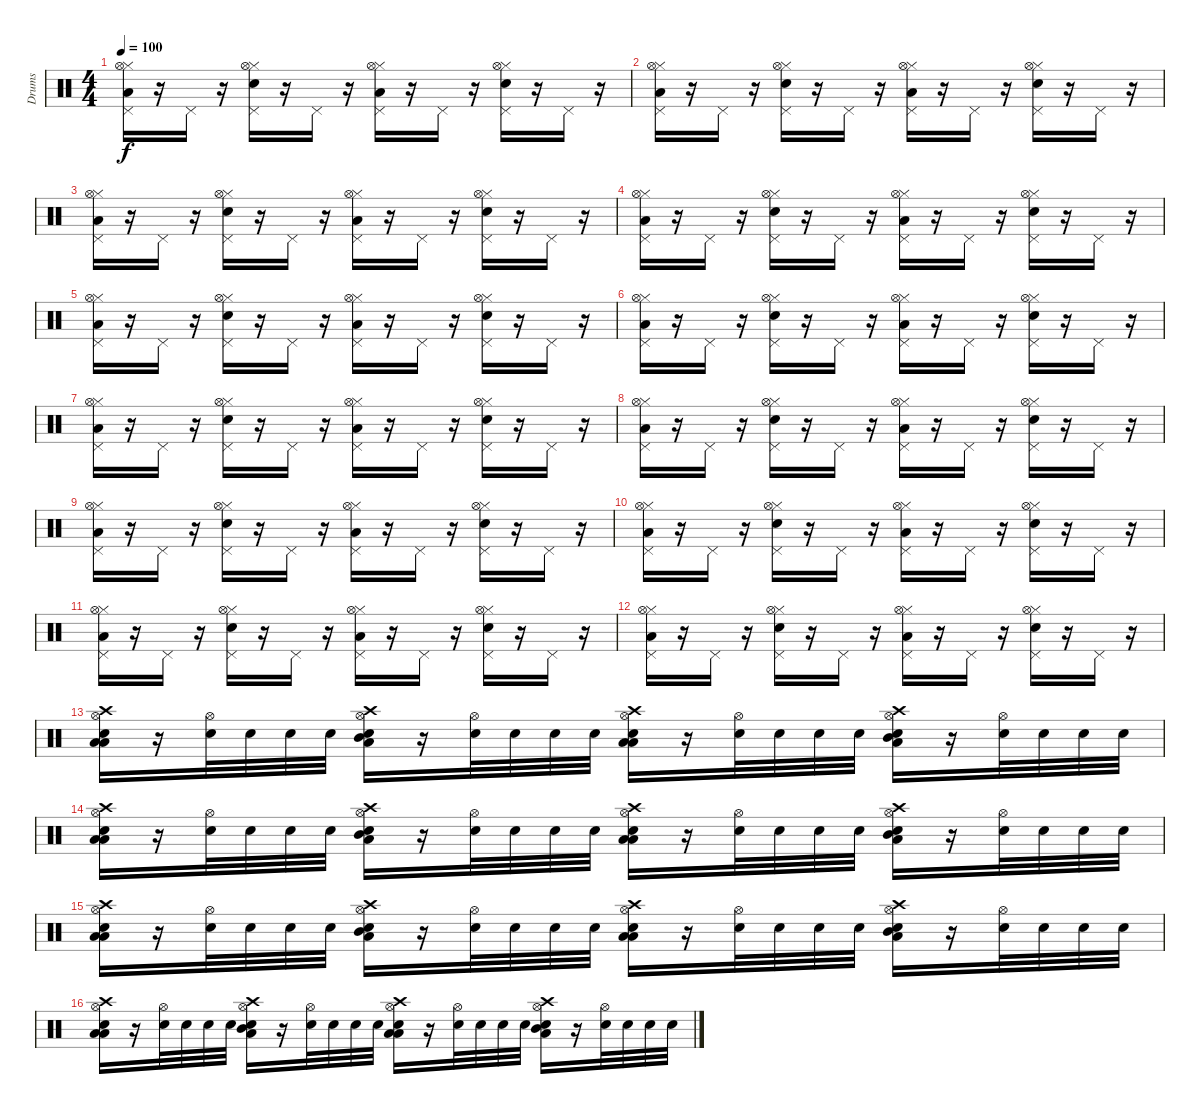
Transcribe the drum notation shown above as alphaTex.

\track ("Drums" "Drums") {instrument percussion}
\staff {score}
\articulation defaults
\ts (4 4)
\tempo 100
\clef neutral
\ks c
("Hi-Hat (closed)" "Pedal Hi-Hat (hit)" "Hi-Hat (open)" "Low Floor Tom (hit)").16{dy f} r.16 "Pedal Hi-Hat (hit)".16 r.16 ("Hi-Hat (closed)" "Pedal Hi-Hat (hit)" "Hi-Hat (open)" "Electric Snare (hit)").16 r.16 "Pedal Hi-Hat (hit)".16 r.16 ("Hi-Hat (closed)" "Pedal Hi-Hat (hit)" "Hi-Hat (open)" "Low Floor Tom (hit)").16 r.16 "Pedal Hi-Hat (hit)".16 r.16 ("Hi-Hat (closed)" "Pedal Hi-Hat (hit)" "Hi-Hat (open)" "Electric Snare (hit)").16 r.16 "Pedal Hi-Hat (hit)".16 r.16 |
("Hi-Hat (closed)" "Pedal Hi-Hat (hit)" "Hi-Hat (open)" "Low Floor Tom (hit)").16 r.16 "Pedal Hi-Hat (hit)".16 r.16 ("Hi-Hat (closed)" "Pedal Hi-Hat (hit)" "Hi-Hat (open)" "Electric Snare (hit)").16 r.16 "Pedal Hi-Hat (hit)".16 r.16 ("Hi-Hat (closed)" "Pedal Hi-Hat (hit)" "Hi-Hat (open)" "Low Floor Tom (hit)").16 r.16 "Pedal Hi-Hat (hit)".16 r.16 ("Hi-Hat (closed)" "Pedal Hi-Hat (hit)" "Hi-Hat (open)" "Electric Snare (hit)").16 r.16 "Pedal Hi-Hat (hit)".16 r.16 |
("Hi-Hat (closed)" "Pedal Hi-Hat (hit)" "Hi-Hat (open)" "Low Floor Tom (hit)").16 r.16 "Pedal Hi-Hat (hit)".16 r.16 ("Hi-Hat (closed)" "Pedal Hi-Hat (hit)" "Hi-Hat (open)" "Electric Snare (hit)").16 r.16 "Pedal Hi-Hat (hit)".16 r.16 ("Hi-Hat (closed)" "Pedal Hi-Hat (hit)" "Hi-Hat (open)" "Low Floor Tom (hit)").16 r.16 "Pedal Hi-Hat (hit)".16 r.16 ("Hi-Hat (closed)" "Pedal Hi-Hat (hit)" "Hi-Hat (open)" "Electric Snare (hit)").16 r.16 "Pedal Hi-Hat (hit)".16 r.16 |
("Hi-Hat (closed)" "Pedal Hi-Hat (hit)" "Hi-Hat (open)" "Low Floor Tom (hit)").16 r.16 "Pedal Hi-Hat (hit)".16 r.16 ("Hi-Hat (closed)" "Pedal Hi-Hat (hit)" "Hi-Hat (open)" "Electric Snare (hit)").16 r.16 "Pedal Hi-Hat (hit)".16 r.16 ("Hi-Hat (closed)" "Pedal Hi-Hat (hit)" "Hi-Hat (open)" "Low Floor Tom (hit)").16 r.16 "Pedal Hi-Hat (hit)".16 r.16 ("Hi-Hat (closed)" "Pedal Hi-Hat (hit)" "Hi-Hat (open)" "Electric Snare (hit)").16 r.16 "Pedal Hi-Hat (hit)".16 r.16 |
("Hi-Hat (closed)" "Pedal Hi-Hat (hit)" "Hi-Hat (open)" "Low Floor Tom (hit)").16 r.16 "Pedal Hi-Hat (hit)".16 r.16 ("Hi-Hat (closed)" "Pedal Hi-Hat (hit)" "Hi-Hat (open)" "Electric Snare (hit)").16 r.16 "Pedal Hi-Hat (hit)".16 r.16 ("Hi-Hat (closed)" "Pedal Hi-Hat (hit)" "Hi-Hat (open)" "Low Floor Tom (hit)").16 r.16 "Pedal Hi-Hat (hit)".16 r.16 ("Hi-Hat (closed)" "Pedal Hi-Hat (hit)" "Hi-Hat (open)" "Electric Snare (hit)").16 r.16 "Pedal Hi-Hat (hit)".16 r.16 |
("Hi-Hat (closed)" "Pedal Hi-Hat (hit)" "Hi-Hat (open)" "Low Floor Tom (hit)").16 r.16 "Pedal Hi-Hat (hit)".16 r.16 ("Hi-Hat (closed)" "Pedal Hi-Hat (hit)" "Hi-Hat (open)" "Electric Snare (hit)").16 r.16 "Pedal Hi-Hat (hit)".16 r.16 ("Hi-Hat (closed)" "Pedal Hi-Hat (hit)" "Hi-Hat (open)" "Low Floor Tom (hit)").16 r.16 "Pedal Hi-Hat (hit)".16 r.16 ("Hi-Hat (closed)" "Pedal Hi-Hat (hit)" "Hi-Hat (open)" "Electric Snare (hit)").16 r.16 "Pedal Hi-Hat (hit)".16 r.16 |
("Hi-Hat (closed)" "Pedal Hi-Hat (hit)" "Hi-Hat (open)" "Low Floor Tom (hit)").16 r.16 "Pedal Hi-Hat (hit)".16 r.16 ("Hi-Hat (closed)" "Pedal Hi-Hat (hit)" "Hi-Hat (open)" "Electric Snare (hit)").16 r.16 "Pedal Hi-Hat (hit)".16 r.16 ("Hi-Hat (closed)" "Pedal Hi-Hat (hit)" "Hi-Hat (open)" "Low Floor Tom (hit)").16 r.16 "Pedal Hi-Hat (hit)".16 r.16 ("Hi-Hat (closed)" "Pedal Hi-Hat (hit)" "Hi-Hat (open)" "Electric Snare (hit)").16 r.16 "Pedal Hi-Hat (hit)".16 r.16 |
("Hi-Hat (closed)" "Pedal Hi-Hat (hit)" "Hi-Hat (open)" "Low Floor Tom (hit)").16 r.16 "Pedal Hi-Hat (hit)".16 r.16 ("Hi-Hat (closed)" "Pedal Hi-Hat (hit)" "Hi-Hat (open)" "Electric Snare (hit)").16 r.16 "Pedal Hi-Hat (hit)".16 r.16 ("Hi-Hat (closed)" "Pedal Hi-Hat (hit)" "Hi-Hat (open)" "Low Floor Tom (hit)").16 r.16 "Pedal Hi-Hat (hit)".16 r.16 ("Hi-Hat (closed)" "Pedal Hi-Hat (hit)" "Hi-Hat (open)" "Electric Snare (hit)").16 r.16 "Pedal Hi-Hat (hit)".16 r.16 |
("Hi-Hat (closed)" "Pedal Hi-Hat (hit)" "Hi-Hat (open)" "Low Floor Tom (hit)").16 r.16 "Pedal Hi-Hat (hit)".16 r.16 ("Hi-Hat (closed)" "Pedal Hi-Hat (hit)" "Hi-Hat (open)" "Electric Snare (hit)").16 r.16 "Pedal Hi-Hat (hit)".16 r.16 ("Hi-Hat (closed)" "Pedal Hi-Hat (hit)" "Hi-Hat (open)" "Low Floor Tom (hit)").16 r.16 "Pedal Hi-Hat (hit)".16 r.16 ("Hi-Hat (closed)" "Pedal Hi-Hat (hit)" "Hi-Hat (open)" "Electric Snare (hit)").16 r.16 "Pedal Hi-Hat (hit)".16 r.16 |
("Hi-Hat (closed)" "Pedal Hi-Hat (hit)" "Hi-Hat (open)" "Low Floor Tom (hit)").16 r.16 "Pedal Hi-Hat (hit)".16 r.16 ("Hi-Hat (closed)" "Pedal Hi-Hat (hit)" "Hi-Hat (open)" "Electric Snare (hit)").16 r.16 "Pedal Hi-Hat (hit)".16 r.16 ("Hi-Hat (closed)" "Pedal Hi-Hat (hit)" "Hi-Hat (open)" "Low Floor Tom (hit)").16 r.16 "Pedal Hi-Hat (hit)".16 r.16 ("Hi-Hat (closed)" "Pedal Hi-Hat (hit)" "Hi-Hat (open)" "Electric Snare (hit)").16 r.16 "Pedal Hi-Hat (hit)".16 r.16 |
("Hi-Hat (closed)" "Pedal Hi-Hat (hit)" "Hi-Hat (open)" "Low Floor Tom (hit)").16 r.16 "Pedal Hi-Hat (hit)".16 r.16 ("Hi-Hat (closed)" "Pedal Hi-Hat (hit)" "Hi-Hat (open)" "Electric Snare (hit)").16 r.16 "Pedal Hi-Hat (hit)".16 r.16 ("Hi-Hat (closed)" "Pedal Hi-Hat (hit)" "Hi-Hat (open)" "Low Floor Tom (hit)").16 r.16 "Pedal Hi-Hat (hit)".16 r.16 ("Hi-Hat (closed)" "Pedal Hi-Hat (hit)" "Hi-Hat (open)" "Electric Snare (hit)").16 r.16 "Pedal Hi-Hat (hit)".16 r.16 |
("Hi-Hat (closed)" "Pedal Hi-Hat (hit)" "Hi-Hat (open)" "Low Floor Tom (hit)").16 r.16 "Pedal Hi-Hat (hit)".16 r.16 ("Hi-Hat (closed)" "Pedal Hi-Hat (hit)" "Hi-Hat (open)" "Electric Snare (hit)").16 r.16 "Pedal Hi-Hat (hit)".16 r.16 ("Hi-Hat (closed)" "Pedal Hi-Hat (hit)" "Hi-Hat (open)" "Low Floor Tom (hit)").16 r.16 "Pedal Hi-Hat (hit)".16 r.16 ("Hi-Hat (closed)" "Pedal Hi-Hat (hit)" "Hi-Hat (open)" "Electric Snare (hit)").16 r.16 "Pedal Hi-Hat (hit)".16 r.16 |
("Hi-Hat (open)" "Crash high (hit)" "Low Tom (hit)" "Low Floor Tom (hit)" "Electric Snare (hit)").16 r.16 ("Hi-Hat (open)" "Electric Snare (hit)").32 "Electric Snare (hit)".32 "Electric Snare (hit)".32 "Electric Snare (hit)".32 ("Hi-Hat (open)" "Crash high (hit)" "Mid Tom (hit)" "Low Floor Tom (hit)" "Electric Snare (hit)").16 r.16 ("Hi-Hat (open)" "Electric Snare (hit)").32 "Electric Snare (hit)".32 "Electric Snare (hit)".32 "Electric Snare (hit)".32 ("Hi-Hat (open)" "Crash high (hit)" "Low Tom (hit)" "Low Floor Tom (hit)" "Electric Snare (hit)").16 r.16 ("Hi-Hat (open)" "Electric Snare (hit)").32 "Electric Snare (hit)".32 "Electric Snare (hit)".32 "Electric Snare (hit)".32 ("Hi-Hat (open)" "Crash high (hit)" "Mid Tom (hit)" "Electric Snare (hit)" "Low Floor Tom (hit)").16 r.16 ("Hi-Hat (open)" "Electric Snare (hit)").32 "Electric Snare (hit)".32 "Electric Snare (hit)".32 "Electric Snare (hit)".32 |
("Hi-Hat (open)" "Crash high (hit)" "Low Tom (hit)" "Low Floor Tom (hit)" "Electric Snare (hit)").16 r.16 ("Hi-Hat (open)" "Electric Snare (hit)").32 "Electric Snare (hit)".32 "Electric Snare (hit)".32 "Electric Snare (hit)".32 ("Hi-Hat (open)" "Crash high (hit)" "Mid Tom (hit)" "Low Floor Tom (hit)" "Electric Snare (hit)").16 r.16 ("Hi-Hat (open)" "Electric Snare (hit)").32 "Electric Snare (hit)".32 "Electric Snare (hit)".32 "Electric Snare (hit)".32 ("Hi-Hat (open)" "Crash high (hit)" "Low Tom (hit)" "Low Floor Tom (hit)" "Electric Snare (hit)").16 r.16 ("Hi-Hat (open)" "Electric Snare (hit)").32 "Electric Snare (hit)".32 "Electric Snare (hit)".32 "Electric Snare (hit)".32 ("Hi-Hat (open)" "Crash high (hit)" "Mid Tom (hit)" "Electric Snare (hit)" "Low Floor Tom (hit)").16 r.16 ("Hi-Hat (open)" "Electric Snare (hit)").32 "Electric Snare (hit)".32 "Electric Snare (hit)".32 "Electric Snare (hit)".32 |
("Hi-Hat (open)" "Crash high (hit)" "Low Tom (hit)" "Low Floor Tom (hit)" "Electric Snare (hit)").16 r.16 ("Hi-Hat (open)" "Electric Snare (hit)").32 "Electric Snare (hit)".32 "Electric Snare (hit)".32 "Electric Snare (hit)".32 ("Hi-Hat (open)" "Crash high (hit)" "Mid Tom (hit)" "Low Floor Tom (hit)" "Electric Snare (hit)").16 r.16 ("Hi-Hat (open)" "Electric Snare (hit)").32 "Electric Snare (hit)".32 "Electric Snare (hit)".32 "Electric Snare (hit)".32 ("Hi-Hat (open)" "Crash high (hit)" "Low Tom (hit)" "Low Floor Tom (hit)" "Electric Snare (hit)").16 r.16 ("Hi-Hat (open)" "Electric Snare (hit)").32 "Electric Snare (hit)".32 "Electric Snare (hit)".32 "Electric Snare (hit)".32 ("Hi-Hat (open)" "Crash high (hit)" "Mid Tom (hit)" "Electric Snare (hit)" "Low Floor Tom (hit)").16 r.16 ("Hi-Hat (open)" "Electric Snare (hit)").32 "Electric Snare (hit)".32 "Electric Snare (hit)".32 "Electric Snare (hit)".32 |
("Hi-Hat (open)" "Crash high (hit)" "Low Tom (hit)" "Low Floor Tom (hit)" "Electric Snare (hit)").16 r.16 ("Hi-Hat (open)" "Electric Snare (hit)").32 "Electric Snare (hit)".32 "Electric Snare (hit)".32 "Electric Snare (hit)".32 ("Hi-Hat (open)" "Crash high (hit)" "Mid Tom (hit)" "Low Floor Tom (hit)" "Electric Snare (hit)").16 r.16 ("Hi-Hat (open)" "Electric Snare (hit)").32 "Electric Snare (hit)".32 "Electric Snare (hit)".32 "Electric Snare (hit)".32 ("Hi-Hat (open)" "Crash high (hit)" "Low Tom (hit)" "Low Floor Tom (hit)" "Electric Snare (hit)").16 r.16 ("Hi-Hat (open)" "Electric Snare (hit)").32 "Electric Snare (hit)".32 "Electric Snare (hit)".32 "Electric Snare (hit)".32 ("Hi-Hat (open)" "Crash high (hit)" "Mid Tom (hit)" "Electric Snare (hit)" "Low Floor Tom (hit)").16 r.16 ("Hi-Hat (open)" "Electric Snare (hit)").32 "Electric Snare (hit)".32 "Electric Snare (hit)".32 "Electric Snare (hit)".32
